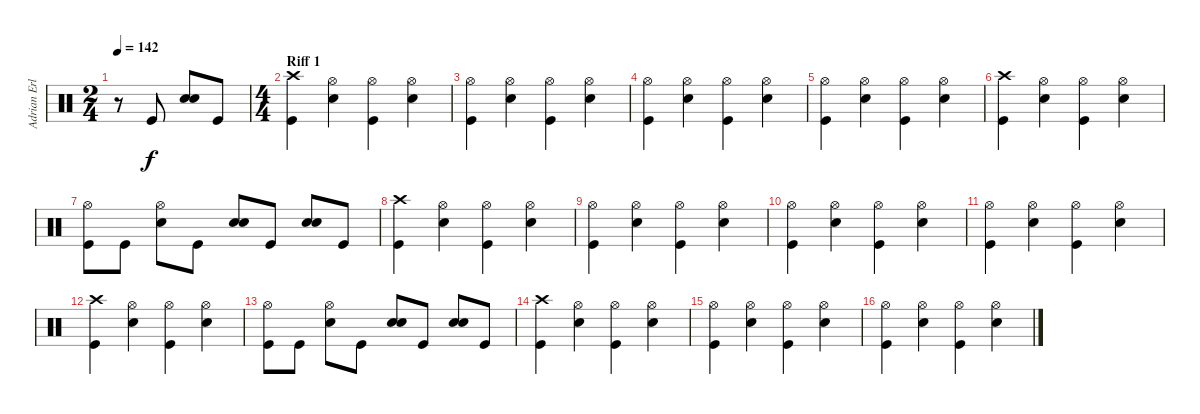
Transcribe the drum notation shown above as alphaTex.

\track ("Adrian Erlandsson (Norseman of the Apoca" "Adrian Erl") {instrument percussion}
\staff {score}
\articulation defaults
\ts (2 4)
\tempo 142
\clef neutral
\ks c
r.8{dy f} "Kick (hit)".8 ("Electric Snare (hit)" "Electric Snare (hit)").8{bu 240} "Kick (hit)".8 |
\ts (4 4)
\section ("" "Riff 1")
("Crash high (hit)" "Kick (hit)").4 ("Hi-Hat (open)" "Electric Snare (hit)").4 ("Hi-Hat (open)" "Kick (hit)").4 ("Hi-Hat (open)" "Electric Snare (hit)").4 |
("Hi-Hat (open)" "Kick (hit)").4 ("Hi-Hat (open)" "Electric Snare (hit)").4 ("Hi-Hat (open)" "Kick (hit)").4 ("Hi-Hat (open)" "Electric Snare (hit)").4 |
("Hi-Hat (open)" "Kick (hit)").4 ("Hi-Hat (open)" "Electric Snare (hit)").4 ("Hi-Hat (open)" "Kick (hit)").4 ("Hi-Hat (open)" "Electric Snare (hit)").4 |
("Hi-Hat (open)" "Kick (hit)").4 ("Hi-Hat (open)" "Electric Snare (hit)").4 ("Hi-Hat (open)" "Kick (hit)").4 ("Hi-Hat (open)" "Electric Snare (hit)").4 |
("Crash high (hit)" "Kick (hit)").4 ("Hi-Hat (open)" "Electric Snare (hit)").4 ("Hi-Hat (open)" "Kick (hit)").4 ("Hi-Hat (open)" "Electric Snare (hit)").4 |
("Hi-Hat (open)" "Kick (hit)").8 "Kick (hit)".8 ("Hi-Hat (open)" "Electric Snare (hit)").8 "Kick (hit)".8 ("Electric Snare (hit)" "Electric Snare (hit)").8{bu 240} "Kick (hit)".8 ("Electric Snare (hit)" "Electric Snare (hit)").8{bu 240} "Kick (hit)".8 |
("Crash high (hit)" "Kick (hit)").4 ("Hi-Hat (open)" "Electric Snare (hit)").4 ("Hi-Hat (open)" "Kick (hit)").4 ("Hi-Hat (open)" "Electric Snare (hit)").4 |
("Hi-Hat (open)" "Kick (hit)").4 ("Hi-Hat (open)" "Electric Snare (hit)").4 ("Hi-Hat (open)" "Kick (hit)").4 ("Hi-Hat (open)" "Electric Snare (hit)").4 |
("Hi-Hat (open)" "Kick (hit)").4 ("Hi-Hat (open)" "Electric Snare (hit)").4 ("Hi-Hat (open)" "Kick (hit)").4 ("Hi-Hat (open)" "Electric Snare (hit)").4 |
("Hi-Hat (open)" "Kick (hit)").4 ("Hi-Hat (open)" "Electric Snare (hit)").4 ("Hi-Hat (open)" "Kick (hit)").4 ("Hi-Hat (open)" "Electric Snare (hit)").4 |
("Crash high (hit)" "Kick (hit)").4 ("Hi-Hat (open)" "Electric Snare (hit)").4 ("Hi-Hat (open)" "Kick (hit)").4 ("Hi-Hat (open)" "Electric Snare (hit)").4 |
("Hi-Hat (open)" "Kick (hit)").8 "Kick (hit)".8 ("Hi-Hat (open)" "Electric Snare (hit)").8 "Kick (hit)".8 ("Electric Snare (hit)" "Electric Snare (hit)").8{bu 240} "Kick (hit)".8 ("Electric Snare (hit)" "Electric Snare (hit)").8{bu 240} "Kick (hit)".8 |
("Crash high (hit)" "Kick (hit)").4 ("Hi-Hat (open)" "Electric Snare (hit)").4 ("Hi-Hat (open)" "Kick (hit)").4 ("Hi-Hat (open)" "Electric Snare (hit)").4 |
("Hi-Hat (open)" "Kick (hit)").4 ("Hi-Hat (open)" "Electric Snare (hit)").4 ("Hi-Hat (open)" "Kick (hit)").4 ("Hi-Hat (open)" "Electric Snare (hit)").4 |
("Hi-Hat (open)" "Kick (hit)").4 ("Hi-Hat (open)" "Electric Snare (hit)").4 ("Hi-Hat (open)" "Kick (hit)").4 ("Hi-Hat (open)" "Electric Snare (hit)").4
